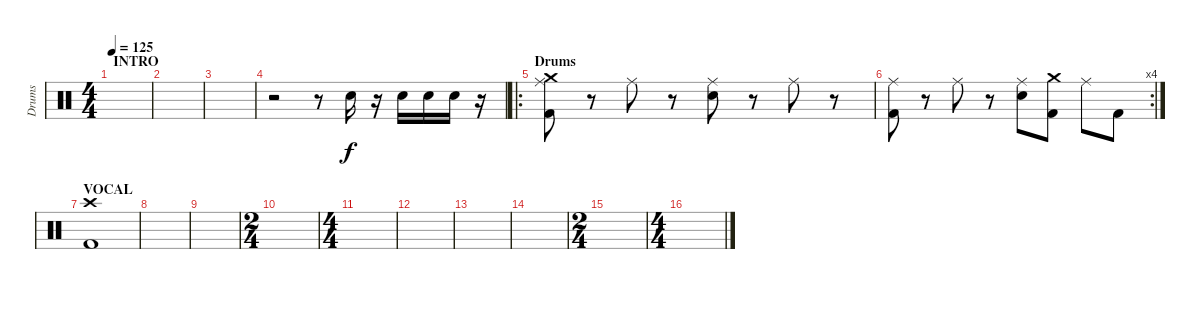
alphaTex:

\track ("Drums" "Drums") {instrument percussion}
\staff {score}
\articulation defaults
\ts (4 4)
\section ("" "INTRO")
\tempo 125
\clef neutral
\ks c
|
|
|
r.2 r.8 "Electric Snare (hit)".16 r.16 "Electric Snare (hit)".16 "Electric Snare (hit)".16 "Electric Snare (hit)".16 r.16 |
\ro
\section ("" "Drums")
("Crash medium (hit)" "Ride (middle)" "Kick (hit) 2").8 r.8 "Ride (middle)".8 r.8 ("Ride (middle)" "Electric Snare (hit)").8 r.8 "Ride (middle)".8 r.8 |
\rc 4
("Ride (middle)" "Kick (hit) 2").8 r.8 "Ride (middle)".8 r.8 ("Ride (middle)" "Electric Snare (hit)").8 ("Crash medium (hit)" "Kick (hit) 2").8 "Ride (middle)".8 "Kick (hit) 2".8 |
\section ("" "VOCAL")
("Crash high (hit)" "Kick (hit) 2").1 |
|
|
\ts (2 4)
|
\ts (4 4)
|
|
|
|
\ts (2 4)
|
\ts (4 4)
